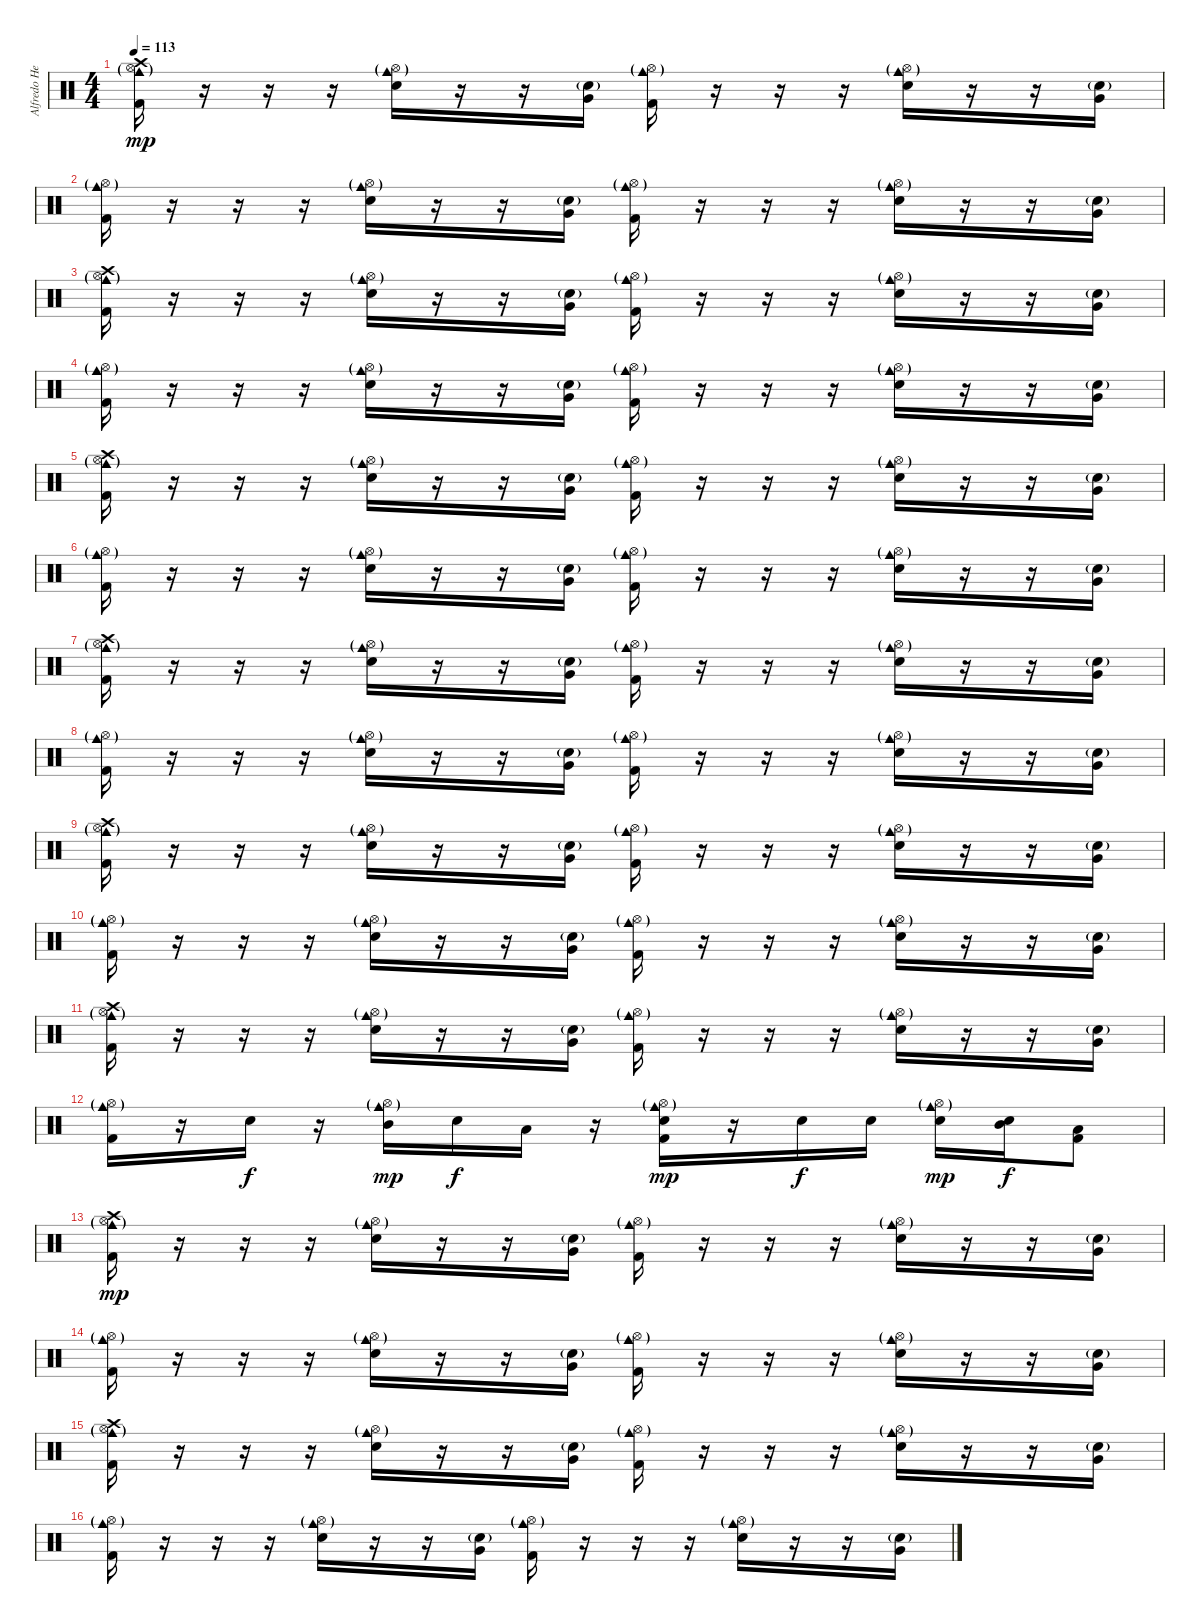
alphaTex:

\track ("Alfredo Hernández" "Alfredo He") {instrument percussion}
\staff {score}
\articulation defaults
\ts (4 4)
\tempo 113
\clef neutral
\ks c
("Crash high (hit)" "Cowbell medium (hit)"{g} "Hi-Hat (open)"{g} "Kick (hit) 2").16{dy mp} r.16 r.16 r.16 ("Electric Snare (hit)" "Cowbell medium (hit)"{g} "Hi-Hat (open)"{g}).16 r.16 r.16 ("Electric Snare (hit)"{g} "Very Low Tom (hit)").16 ("Cowbell medium (hit)"{g} "Hi-Hat (open)"{g} "Kick (hit) 2").16 r.16 r.16 r.16 ("Electric Snare (hit)" "Cowbell medium (hit)"{g} "Hi-Hat (open)"{g}).16 r.16 r.16 ("Electric Snare (hit)"{g} "Very Low Tom (hit)").16 |
("Cowbell medium (hit)"{g} "Hi-Hat (open)"{g} "Kick (hit) 2").16 r.16 r.16 r.16 ("Electric Snare (hit)" "Cowbell medium (hit)"{g} "Hi-Hat (open)"{g}).16 r.16 r.16 ("Electric Snare (hit)"{g} "Very Low Tom (hit)").16 ("Cowbell medium (hit)"{g} "Hi-Hat (open)"{g} "Kick (hit) 2").16 r.16 r.16 r.16 ("Electric Snare (hit)" "Cowbell medium (hit)"{g} "Hi-Hat (open)"{g}).16 r.16 r.16 ("Electric Snare (hit)"{g} "Very Low Tom (hit)").16 |
("Crash high (hit)" "Cowbell medium (hit)"{g} "Hi-Hat (open)"{g} "Kick (hit) 2").16 r.16 r.16 r.16 ("Electric Snare (hit)" "Cowbell medium (hit)"{g} "Hi-Hat (open)"{g}).16 r.16 r.16 ("Electric Snare (hit)"{g} "Very Low Tom (hit)").16 ("Cowbell medium (hit)"{g} "Hi-Hat (open)"{g} "Kick (hit) 2").16 r.16 r.16 r.16 ("Electric Snare (hit)" "Cowbell medium (hit)"{g} "Hi-Hat (open)"{g}).16 r.16 r.16 ("Electric Snare (hit)"{g} "Very Low Tom (hit)").16 |
("Cowbell medium (hit)"{g} "Hi-Hat (open)"{g} "Kick (hit) 2").16 r.16 r.16 r.16 ("Electric Snare (hit)" "Cowbell medium (hit)"{g} "Hi-Hat (open)"{g}).16 r.16 r.16 ("Electric Snare (hit)"{g} "Very Low Tom (hit)").16 ("Cowbell medium (hit)"{g} "Hi-Hat (open)"{g} "Kick (hit) 2").16 r.16 r.16 r.16 ("Electric Snare (hit)" "Cowbell medium (hit)"{g} "Hi-Hat (open)"{g}).16 r.16 r.16 ("Electric Snare (hit)"{g} "Very Low Tom (hit)").16 |
("Crash high (hit)" "Cowbell medium (hit)"{g} "Hi-Hat (open)"{g} "Kick (hit) 2").16 r.16 r.16 r.16 ("Electric Snare (hit)" "Cowbell medium (hit)"{g} "Hi-Hat (open)"{g}).16 r.16 r.16 ("Electric Snare (hit)"{g} "Very Low Tom (hit)").16 ("Cowbell medium (hit)"{g} "Hi-Hat (open)"{g} "Kick (hit) 2").16 r.16 r.16 r.16 ("Electric Snare (hit)" "Cowbell medium (hit)"{g} "Hi-Hat (open)"{g}).16 r.16 r.16 ("Electric Snare (hit)"{g} "Very Low Tom (hit)").16 |
("Cowbell medium (hit)"{g} "Hi-Hat (open)"{g} "Kick (hit) 2").16 r.16 r.16 r.16 ("Electric Snare (hit)" "Cowbell medium (hit)"{g} "Hi-Hat (open)"{g}).16 r.16 r.16 ("Electric Snare (hit)"{g} "Very Low Tom (hit)").16 ("Cowbell medium (hit)"{g} "Hi-Hat (open)"{g} "Kick (hit) 2").16 r.16 r.16 r.16 ("Electric Snare (hit)" "Cowbell medium (hit)"{g} "Hi-Hat (open)"{g}).16 r.16 r.16 ("Electric Snare (hit)"{g} "Very Low Tom (hit)").16 |
("Crash high (hit)" "Cowbell medium (hit)"{g} "Hi-Hat (open)"{g} "Kick (hit) 2").16 r.16 r.16 r.16 ("Electric Snare (hit)" "Cowbell medium (hit)"{g} "Hi-Hat (open)"{g}).16 r.16 r.16 ("Electric Snare (hit)"{g} "Very Low Tom (hit)").16 ("Cowbell medium (hit)"{g} "Hi-Hat (open)"{g} "Kick (hit) 2").16 r.16 r.16 r.16 ("Electric Snare (hit)" "Cowbell medium (hit)"{g} "Hi-Hat (open)"{g}).16 r.16 r.16 ("Electric Snare (hit)"{g} "Very Low Tom (hit)").16 |
("Cowbell medium (hit)"{g} "Hi-Hat (open)"{g} "Kick (hit) 2").16 r.16 r.16 r.16 ("Electric Snare (hit)" "Cowbell medium (hit)"{g} "Hi-Hat (open)"{g}).16 r.16 r.16 ("Electric Snare (hit)"{g} "Very Low Tom (hit)").16 ("Cowbell medium (hit)"{g} "Hi-Hat (open)"{g} "Kick (hit) 2").16 r.16 r.16 r.16 ("Electric Snare (hit)" "Cowbell medium (hit)"{g} "Hi-Hat (open)"{g}).16 r.16 r.16 ("Electric Snare (hit)"{g} "Very Low Tom (hit)").16 |
("Crash high (hit)" "Cowbell medium (hit)"{g} "Hi-Hat (open)"{g} "Kick (hit) 2").16 r.16 r.16 r.16 ("Electric Snare (hit)" "Cowbell medium (hit)"{g} "Hi-Hat (open)"{g}).16 r.16 r.16 ("Electric Snare (hit)"{g} "Very Low Tom (hit)").16 ("Cowbell medium (hit)"{g} "Hi-Hat (open)"{g} "Kick (hit) 2").16 r.16 r.16 r.16 ("Electric Snare (hit)" "Cowbell medium (hit)"{g} "Hi-Hat (open)"{g}).16 r.16 r.16 ("Electric Snare (hit)"{g} "Very Low Tom (hit)").16 |
("Cowbell medium (hit)"{g} "Hi-Hat (open)"{g} "Kick (hit) 2").16 r.16 r.16 r.16 ("Electric Snare (hit)" "Cowbell medium (hit)"{g} "Hi-Hat (open)"{g}).16 r.16 r.16 ("Electric Snare (hit)"{g} "Very Low Tom (hit)").16 ("Cowbell medium (hit)"{g} "Hi-Hat (open)"{g} "Kick (hit) 2").16 r.16 r.16 r.16 ("Electric Snare (hit)" "Cowbell medium (hit)"{g} "Hi-Hat (open)"{g}).16 r.16 r.16 ("Electric Snare (hit)"{g} "Very Low Tom (hit)").16 |
("Crash high (hit)" "Cowbell medium (hit)"{g} "Hi-Hat (open)"{g} "Kick (hit) 2").16 r.16 r.16 r.16 ("Electric Snare (hit)" "Cowbell medium (hit)"{g} "Hi-Hat (open)"{g}).16 r.16 r.16 ("Electric Snare (hit)"{g} "Very Low Tom (hit)").16 ("Cowbell medium (hit)"{g} "Hi-Hat (open)"{g} "Kick (hit) 2").16 r.16 r.16 r.16 ("Electric Snare (hit)" "Cowbell medium (hit)"{g} "Hi-Hat (open)"{g}).16 r.16 r.16 ("Electric Snare (hit)"{g} "Very Low Tom (hit)").16 |
("Cowbell medium (hit)"{g} "Hi-Hat (open)"{g} "Kick (hit) 2").16 r.16 "Electric Snare (hit)".16{dy f} r.16 ("Cowbell medium (hit)"{g} "Hi-Hat (open)"{g} "Mid Tom (hit)").16{dy mp} "Electric Snare (hit)".16{dy f} "Low Tom (hit)".16 r.16 ("Electric Snare (hit)" "Cowbell medium (hit)"{g} "Hi-Hat (open)"{g} "Kick (hit) 2").16{dy mp} r.16 "Electric Snare (hit)".16{dy f} "Electric Snare (hit)".16 ("Electric Snare (hit)" "Cowbell medium (hit)"{g} "Hi-Hat (open)"{g}).16{dy mp} ("Electric Snare (hit)" "Mid Tom (hit)").16{dy f} ("Low Tom (hit)" "Kick (hit) 2").8 |
("Crash high (hit)" "Cowbell medium (hit)"{g} "Hi-Hat (open)"{g} "Kick (hit) 2").16{dy mp} r.16 r.16 r.16 ("Electric Snare (hit)" "Cowbell medium (hit)"{g} "Hi-Hat (open)"{g}).16 r.16 r.16 ("Electric Snare (hit)"{g} "Very Low Tom (hit)").16 ("Cowbell medium (hit)"{g} "Hi-Hat (open)"{g} "Kick (hit) 2").16 r.16 r.16 r.16 ("Electric Snare (hit)" "Cowbell medium (hit)"{g} "Hi-Hat (open)"{g}).16 r.16 r.16 ("Electric Snare (hit)"{g} "Very Low Tom (hit)").16 |
("Cowbell medium (hit)"{g} "Hi-Hat (open)"{g} "Kick (hit) 2").16 r.16 r.16 r.16 ("Electric Snare (hit)" "Cowbell medium (hit)"{g} "Hi-Hat (open)"{g}).16 r.16 r.16 ("Electric Snare (hit)"{g} "Very Low Tom (hit)").16 ("Cowbell medium (hit)"{g} "Hi-Hat (open)"{g} "Kick (hit) 2").16 r.16 r.16 r.16 ("Electric Snare (hit)" "Cowbell medium (hit)"{g} "Hi-Hat (open)"{g}).16 r.16 r.16 ("Electric Snare (hit)"{g} "Very Low Tom (hit)").16 |
("Crash high (hit)" "Cowbell medium (hit)"{g} "Hi-Hat (open)"{g} "Kick (hit) 2").16 r.16 r.16 r.16 ("Electric Snare (hit)" "Cowbell medium (hit)"{g} "Hi-Hat (open)"{g}).16 r.16 r.16 ("Electric Snare (hit)"{g} "Very Low Tom (hit)").16 ("Cowbell medium (hit)"{g} "Hi-Hat (open)"{g} "Kick (hit) 2").16 r.16 r.16 r.16 ("Electric Snare (hit)" "Cowbell medium (hit)"{g} "Hi-Hat (open)"{g}).16 r.16 r.16 ("Electric Snare (hit)"{g} "Very Low Tom (hit)").16 |
("Cowbell medium (hit)"{g} "Hi-Hat (open)"{g} "Kick (hit) 2").16 r.16 r.16 r.16 ("Electric Snare (hit)" "Cowbell medium (hit)"{g} "Hi-Hat (open)"{g}).16 r.16 r.16 ("Electric Snare (hit)"{g} "Very Low Tom (hit)").16 ("Cowbell medium (hit)"{g} "Hi-Hat (open)"{g} "Kick (hit) 2").16 r.16 r.16 r.16 ("Electric Snare (hit)" "Cowbell medium (hit)"{g} "Hi-Hat (open)"{g}).16 r.16 r.16 ("Electric Snare (hit)"{g} "Very Low Tom (hit)").16
